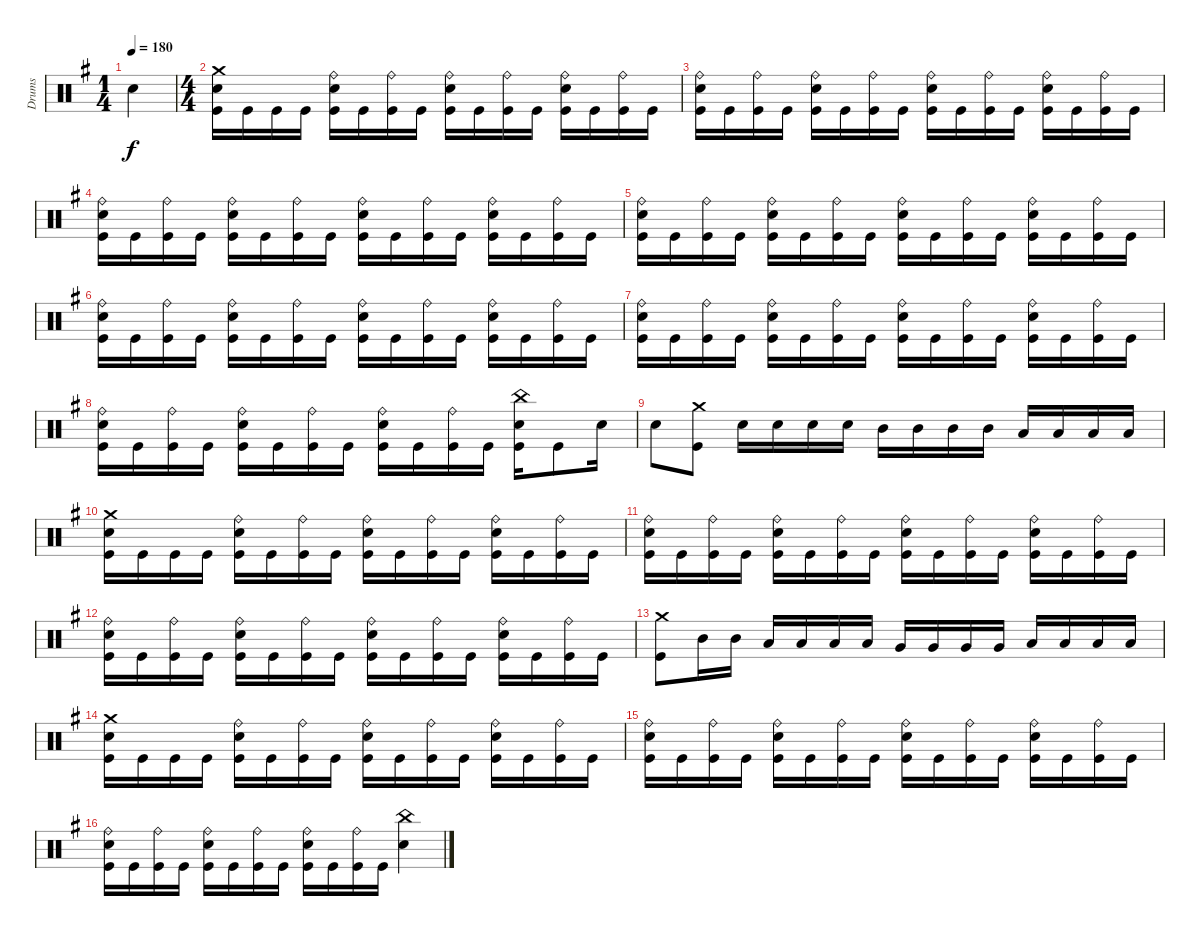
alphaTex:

\track ("Drums" "Drums") {instrument percussion}
\staff {score}
\articulation defaults
\ts (1 4)
\tempo 180
\clef neutral
\ks g "Electric Snare (hit)".4{dy f}
|
\ts (4 4)
("Kick (hit)" "Electric Snare (hit)" "Crash medium (hit)").16 "Kick (hit)".16 "Kick (hit)".16 "Kick (hit)".16 ("Kick (hit)" "Electric Snare (hit)" "Ride (bell)").16 "Kick (hit)".16 ("Kick (hit)" "Ride (bell)").16 "Kick (hit)".16 ("Kick (hit)" "Electric Snare (hit)" "Ride (bell)").16 "Kick (hit)".16 ("Kick (hit)" "Ride (bell)").16 "Kick (hit)".16 ("Kick (hit)" "Electric Snare (hit)" "Ride (bell)").16 "Kick (hit)".16 ("Kick (hit)" "Ride (bell)").16 "Kick (hit)".16 |
("Kick (hit)" "Electric Snare (hit)" "Ride (bell)").16 "Kick (hit)".16 ("Kick (hit)" "Ride (bell)").16 "Kick (hit)".16 ("Kick (hit)" "Electric Snare (hit)" "Ride (bell)").16 "Kick (hit)".16 ("Kick (hit)" "Ride (bell)").16 "Kick (hit)".16 ("Kick (hit)" "Electric Snare (hit)" "Ride (bell)").16 "Kick (hit)".16 ("Kick (hit)" "Ride (bell)").16 "Kick (hit)".16 ("Kick (hit)" "Electric Snare (hit)" "Ride (bell)").16 "Kick (hit)".16 ("Kick (hit)" "Ride (bell)").16 "Kick (hit)".16 |
("Kick (hit)" "Electric Snare (hit)" "Ride (bell)").16 "Kick (hit)".16 ("Kick (hit)" "Ride (bell)").16 "Kick (hit)".16 ("Kick (hit)" "Electric Snare (hit)" "Ride (bell)").16 "Kick (hit)".16 ("Kick (hit)" "Ride (bell)").16 "Kick (hit)".16 ("Kick (hit)" "Electric Snare (hit)" "Ride (bell)").16 "Kick (hit)".16 ("Kick (hit)" "Ride (bell)").16 "Kick (hit)".16 ("Kick (hit)" "Electric Snare (hit)" "Ride (bell)").16 "Kick (hit)".16 ("Kick (hit)" "Ride (bell)").16 "Kick (hit)".16 |
("Kick (hit)" "Electric Snare (hit)" "Ride (bell)").16 "Kick (hit)".16 ("Kick (hit)" "Ride (bell)").16 "Kick (hit)".16 ("Kick (hit)" "Electric Snare (hit)" "Ride (bell)").16 "Kick (hit)".16 ("Kick (hit)" "Ride (bell)").16 "Kick (hit)".16 ("Kick (hit)" "Electric Snare (hit)" "Ride (bell)").16 "Kick (hit)".16 ("Kick (hit)" "Ride (bell)").16 "Kick (hit)".16 ("Kick (hit)" "Electric Snare (hit)" "Ride (bell)").16 "Kick (hit)".16 ("Kick (hit)" "Ride (bell)").16 "Kick (hit)".16 |
("Kick (hit)" "Electric Snare (hit)" "Ride (bell)").16 "Kick (hit)".16 ("Kick (hit)" "Ride (bell)").16 "Kick (hit)".16 ("Kick (hit)" "Electric Snare (hit)" "Ride (bell)").16 "Kick (hit)".16 ("Kick (hit)" "Ride (bell)").16 "Kick (hit)".16 ("Kick (hit)" "Electric Snare (hit)" "Ride (bell)").16 "Kick (hit)".16 ("Kick (hit)" "Ride (bell)").16 "Kick (hit)".16 ("Kick (hit)" "Electric Snare (hit)" "Ride (bell)").16 "Kick (hit)".16 ("Kick (hit)" "Ride (bell)").16 "Kick (hit)".16 |
("Kick (hit)" "Electric Snare (hit)" "Ride (bell)").16 "Kick (hit)".16 ("Kick (hit)" "Ride (bell)").16 "Kick (hit)".16 ("Kick (hit)" "Electric Snare (hit)" "Ride (bell)").16 "Kick (hit)".16 ("Kick (hit)" "Ride (bell)").16 "Kick (hit)".16 ("Kick (hit)" "Electric Snare (hit)" "Ride (bell)").16 "Kick (hit)".16 ("Kick (hit)" "Ride (bell)").16 "Kick (hit)".16 ("Kick (hit)" "Electric Snare (hit)" "Ride (bell)").16 "Kick (hit)".16 ("Kick (hit)" "Ride (bell)").16 "Kick (hit)".16 |
("Kick (hit)" "Electric Snare (hit)" "Ride (bell)").16 "Kick (hit)".16 ("Kick (hit)" "Ride (bell)").16 "Kick (hit)".16 ("Kick (hit)" "Electric Snare (hit)" "Ride (bell)").16 "Kick (hit)".16 ("Kick (hit)" "Ride (bell)").16 "Kick (hit)".16 ("Kick (hit)" "Electric Snare (hit)" "Ride (bell)").16 "Kick (hit)".16 ("Kick (hit)" "Ride (bell)").16 "Kick (hit)".16 ("Kick (hit)" "Electric Snare (hit)" "China (hit)").16 "Kick (hit)".8 "Electric Snare (hit)".16 |
"Electric Snare (hit)".8 ("Kick (hit)" "Crash medium (hit)").8 "Electric Snare (hit)".16 "Electric Snare (hit)".16 "Electric Snare (hit)".16 "Electric Snare (hit)".16 "Mid Tom (hit)".16 "Mid Tom (hit)".16 "Mid Tom (hit)".16 "Mid Tom (hit)".16 "Low Tom (hit)".16 "Low Tom (hit)".16 "Low Tom (hit)".16 "Low Tom (hit)".16 |
("Kick (hit)" "Electric Snare (hit)" "Crash medium (hit)").16 "Kick (hit)".16 "Kick (hit)".16 "Kick (hit)".16 ("Kick (hit)" "Electric Snare (hit)" "Ride (bell)").16 "Kick (hit)".16 ("Kick (hit)" "Ride (bell)").16 "Kick (hit)".16 ("Kick (hit)" "Electric Snare (hit)" "Ride (bell)").16 "Kick (hit)".16 ("Kick (hit)" "Ride (bell)").16 "Kick (hit)".16 ("Kick (hit)" "Electric Snare (hit)" "Ride (bell)").16 "Kick (hit)".16 ("Kick (hit)" "Ride (bell)").16 "Kick (hit)".16 |
("Kick (hit)" "Electric Snare (hit)" "Ride (bell)").16 "Kick (hit)".16 ("Kick (hit)" "Ride (bell)").16 "Kick (hit)".16 ("Kick (hit)" "Electric Snare (hit)" "Ride (bell)").16 "Kick (hit)".16 ("Kick (hit)" "Ride (bell)").16 "Kick (hit)".16 ("Kick (hit)" "Electric Snare (hit)" "Ride (bell)").16 "Kick (hit)".16 ("Kick (hit)" "Ride (bell)").16 "Kick (hit)".16 ("Kick (hit)" "Electric Snare (hit)" "Ride (bell)").16 "Kick (hit)".16 ("Kick (hit)" "Ride (bell)").16 "Kick (hit)".16 |
("Kick (hit)" "Electric Snare (hit)" "Ride (bell)").16 "Kick (hit)".16 ("Kick (hit)" "Ride (bell)").16 "Kick (hit)".16 ("Kick (hit)" "Electric Snare (hit)" "Ride (bell)").16 "Kick (hit)".16 ("Kick (hit)" "Ride (bell)").16 "Kick (hit)".16 ("Kick (hit)" "Electric Snare (hit)" "Ride (bell)").16 "Kick (hit)".16 ("Kick (hit)" "Ride (bell)").16 "Kick (hit)".16 ("Kick (hit)" "Electric Snare (hit)" "Ride (bell)").16 "Kick (hit)".16 ("Kick (hit)" "Ride (bell)").16 "Kick (hit)".16 |
("Kick (hit)" "Crash medium (hit)").8 "Mid Tom (hit)".16 "Mid Tom (hit)".16 "Low Tom (hit)".16 "Low Tom (hit)".16 "Low Tom (hit)".16 "Low Tom (hit)".16 "Very Low Tom (hit)".16 "Very Low Tom (hit)".16 "Very Low Tom (hit)".16 "Very Low Tom (hit)".16 "Low Floor Tom (hit)".16 "Low Floor Tom (hit)".16 "Low Floor Tom (hit)".16 "Low Floor Tom (hit)".16 |
("Kick (hit)" "Electric Snare (hit)" "Crash medium (hit)").16 "Kick (hit)".16 "Kick (hit)".16 "Kick (hit)".16 ("Kick (hit)" "Electric Snare (hit)" "Ride (bell)").16 "Kick (hit)".16 ("Kick (hit)" "Ride (bell)").16 "Kick (hit)".16 ("Kick (hit)" "Electric Snare (hit)" "Ride (bell)").16 "Kick (hit)".16 ("Kick (hit)" "Ride (bell)").16 "Kick (hit)".16 ("Kick (hit)" "Electric Snare (hit)" "Ride (bell)").16 "Kick (hit)".16 ("Kick (hit)" "Ride (bell)").16 "Kick (hit)".16 |
("Kick (hit)" "Electric Snare (hit)" "Ride (bell)").16 "Kick (hit)".16 ("Kick (hit)" "Ride (bell)").16 "Kick (hit)".16 ("Kick (hit)" "Electric Snare (hit)" "Ride (bell)").16 "Kick (hit)".16 ("Kick (hit)" "Ride (bell)").16 "Kick (hit)".16 ("Kick (hit)" "Electric Snare (hit)" "Ride (bell)").16 "Kick (hit)".16 ("Kick (hit)" "Ride (bell)").16 "Kick (hit)".16 ("Kick (hit)" "Electric Snare (hit)" "Ride (bell)").16 "Kick (hit)".16 ("Kick (hit)" "Ride (bell)").16 "Kick (hit)".16 |
("Kick (hit)" "Electric Snare (hit)" "Ride (bell)").16 "Kick (hit)".16 ("Kick (hit)" "Ride (bell)").16 "Kick (hit)".16 ("Kick (hit)" "Electric Snare (hit)" "Ride (bell)").16 "Kick (hit)".16 ("Kick (hit)" "Ride (bell)").16 "Kick (hit)".16 ("Kick (hit)" "Electric Snare (hit)" "Ride (bell)").16 "Kick (hit)".16 ("Kick (hit)" "Ride (bell)").16 "Kick (hit)".16 ("Electric Snare (hit)" "China (hit)").4
